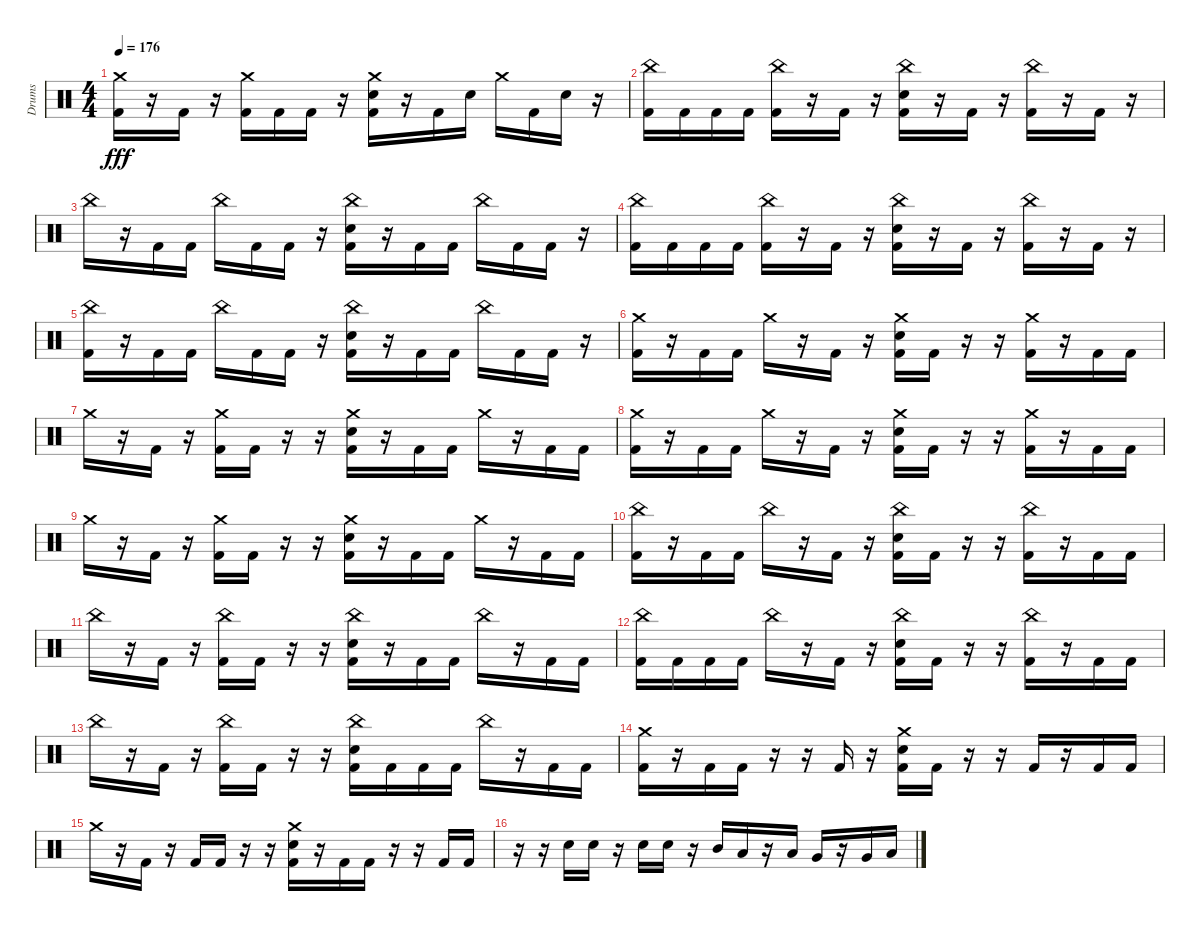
\track ("Drums" "Drums") {instrument percussion}
\staff {score}
\articulation defaults
\ts (4 4)
\tempo 176
\clef neutral
\ks c
("Crash medium (hit)" "Kick (hit) 2").16{dy fff} r.16 "Kick (hit) 2".16 r.16 ("Crash medium (hit)" "Kick (hit) 2").16 "Kick (hit) 2".16 "Kick (hit) 2".16 r.16 ("Crash medium (hit)" "Kick (hit) 2" "Electric Snare (hit)").16 r.16 "Kick (hit) 2".16 "Electric Snare (hit)".16 "Crash medium (hit)".16 "Kick (hit) 2".16 "Electric Snare (hit)".16 r.16 |
("China (hit)" "Kick (hit) 2").16 "Kick (hit) 2".16 "Kick (hit) 2".16 "Kick (hit) 2".16 ("China (hit)" "Kick (hit) 2").16 r.16 "Kick (hit) 2".16 r.16 ("China (hit)" "Kick (hit) 2" "Electric Snare (hit)").16 r.16 "Kick (hit) 2".16 r.16 ("China (hit)" "Kick (hit) 2").16 r.16 "Kick (hit) 2".16 r.16 |
"China (hit)".16 r.16 "Kick (hit) 2".16 "Kick (hit) 2".16 "China (hit)".16 "Kick (hit) 2".16 "Kick (hit) 2".16 r.16 ("China (hit)" "Kick (hit) 2" "Electric Snare (hit)").16 r.16 "Kick (hit) 2".16 "Kick (hit) 2".16 "China (hit)".16 "Kick (hit) 2".16 "Kick (hit) 2".16 r.16 |
("China (hit)" "Kick (hit) 2").16 "Kick (hit) 2".16 "Kick (hit) 2".16 "Kick (hit) 2".16 ("China (hit)" "Kick (hit) 2").16 r.16 "Kick (hit) 2".16 r.16 ("China (hit)" "Kick (hit) 2" "Electric Snare (hit)").16 r.16 "Kick (hit) 2".16 r.16 ("China (hit)" "Kick (hit) 2").16 r.16 "Kick (hit) 2".16 r.16 |
("China (hit)" "Kick (hit) 2").16 r.16 "Kick (hit) 2".16 "Kick (hit) 2".16 "China (hit)".16 "Kick (hit) 2".16 "Kick (hit) 2".16 r.16 ("China (hit)" "Kick (hit) 2" "Electric Snare (hit)").16 r.16 "Kick (hit) 2".16 "Kick (hit) 2".16 "China (hit)".16 "Kick (hit) 2".16 "Kick (hit) 2".16 r.16 |
("Kick (hit) 2" "Crash medium (hit)").16 r.16 "Kick (hit) 2".16 "Kick (hit) 2".16 "Crash medium (hit)".16 r.16 "Kick (hit) 2".16 r.16 ("Crash medium (hit)" "Kick (hit) 2" "Electric Snare (hit)").16 "Kick (hit) 2".16 r.16 r.16 ("Kick (hit) 2" "Crash medium (hit)").16 r.16 "Kick (hit) 2".16 "Kick (hit) 2".16 |
"Crash medium (hit)".16 r.16 "Kick (hit) 2".16 r.16 ("Crash medium (hit)" "Kick (hit) 2").16 "Kick (hit) 2".16 r.16 r.16 ("Crash medium (hit)" "Kick (hit) 2" "Electric Snare (hit)").16 r.16 "Kick (hit) 2".16 "Kick (hit) 2".16 "Crash medium (hit)".16 r.16 "Kick (hit) 2".16 "Kick (hit) 2".16 |
("Kick (hit) 2" "Crash medium (hit)").16 r.16 "Kick (hit) 2".16 "Kick (hit) 2".16 "Crash medium (hit)".16 r.16 "Kick (hit) 2".16 r.16 ("Crash medium (hit)" "Kick (hit) 2" "Electric Snare (hit)").16 "Kick (hit) 2".16 r.16 r.16 ("Crash medium (hit)" "Kick (hit) 2").16 r.16 "Kick (hit) 2".16 "Kick (hit) 2".16 |
"Crash medium (hit)".16 r.16 "Kick (hit) 2".16 r.16 ("Crash medium (hit)" "Kick (hit) 2").16 "Kick (hit) 2".16 r.16 r.16 ("Crash medium (hit)" "Kick (hit) 2" "Electric Snare (hit)").16 r.16 "Kick (hit) 2".16 "Kick (hit) 2".16 "Crash medium (hit)".16 r.16 "Kick (hit) 2".16 "Kick (hit) 2".16 |
("Kick (hit) 2" "China (hit)").16 r.16 "Kick (hit) 2".16 "Kick (hit) 2".16 "China (hit)".16 r.16 "Kick (hit) 2".16 r.16 ("Kick (hit) 2" "China (hit)" "Electric Snare (hit)").16 "Kick (hit) 2".16 r.16 r.16 ("Kick (hit) 2" "China (hit)").16 r.16 "Kick (hit) 2".16 "Kick (hit) 2".16 |
"China (hit)".16 r.16 "Kick (hit) 2".16 r.16 ("Kick (hit) 2" "China (hit)").16 "Kick (hit) 2".16 r.16 r.16 ("Kick (hit) 2" "China (hit)" "Electric Snare (hit)").16 r.16 "Kick (hit) 2".16 "Kick (hit) 2".16 "China (hit)".16 r.16 "Kick (hit) 2".16 "Kick (hit) 2".16 |
("Kick (hit) 2" "China (hit)").16 "Kick (hit) 2".16 "Kick (hit) 2".16 "Kick (hit) 2".16 "China (hit)".16 r.16 "Kick (hit) 2".16 r.16 ("Kick (hit) 2" "China (hit)" "Electric Snare (hit)").16 "Kick (hit) 2".16 r.16 r.16 ("Kick (hit) 2" "China (hit)").16 r.16 "Kick (hit) 2".16 "Kick (hit) 2".16 |
"China (hit)".16 r.16 "Kick (hit) 2".16 r.16 ("Kick (hit) 2" "China (hit)").16 "Kick (hit) 2".16 r.16 r.16 ("Kick (hit) 2" "China (hit)" "Electric Snare (hit)").16 "Kick (hit) 2".16 "Kick (hit) 2".16 "Kick (hit) 2".16 "China (hit)".16 r.16 "Kick (hit) 2".16 "Kick (hit) 2".16 |
("Crash medium (hit)" "Kick (hit) 2").16 r.16 "Kick (hit) 2".16 "Kick (hit) 2".16 r.16 r.16 "Kick (hit) 2".16 r.16 ("Crash medium (hit)" "Kick (hit) 2" "Electric Snare (hit)").16 "Kick (hit) 2".16 r.16 r.16 "Kick (hit) 2".16 r.16 "Kick (hit) 2".16 "Kick (hit) 2".16 |
"Crash medium (hit)".16 r.16 "Kick (hit) 2".16 r.16 "Kick (hit) 2".16 "Kick (hit) 2".16 r.16 r.16 ("Crash medium (hit)" "Kick (hit) 2" "Electric Snare (hit)").16 r.16 "Kick (hit) 2".16 "Kick (hit) 2".16 r.16 r.16 "Kick (hit) 2".16 "Kick (hit) 2".16 |
r.16 r.16 "Electric Snare (hit)".16 "Electric Snare (hit)".16 r.16 "Electric Snare (hit)".16 "Electric Snare (hit)".16 r.16 "Mid Tom (hit)".16 "Low Tom (hit)".16 r.16 "Low Tom (hit)".16 "Very Low Tom (hit)".16 r.16 "Very Low Tom (hit)".16 "Low Floor Tom (hit)".16
